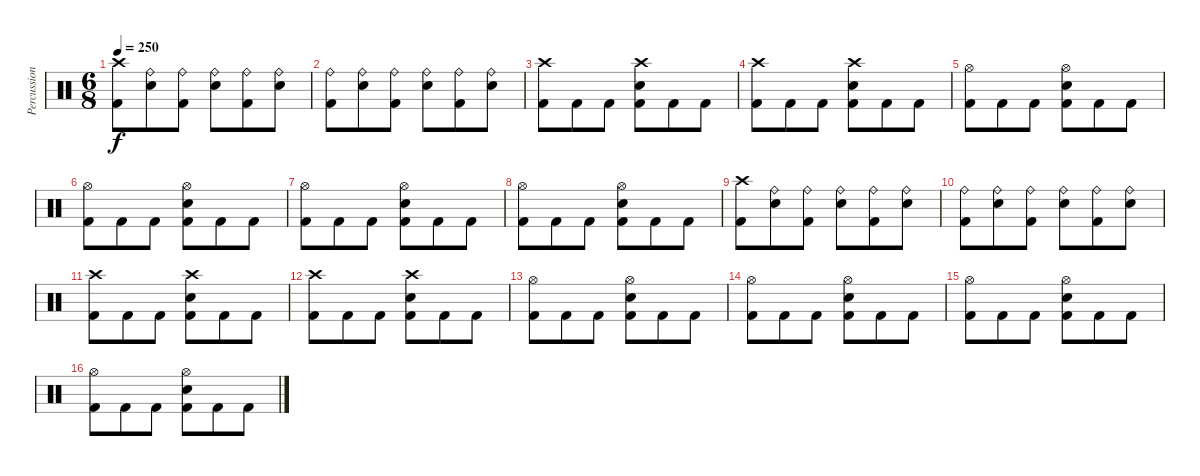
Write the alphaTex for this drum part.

\track ("Percussion" "Percussion") {instrument percussion}
\staff {score}
\articulation defaults
\ts (6 8)
\tempo 250
\clef neutral
\ks c
("Crash high (hit)" "Kick (hit) 2").8{dy f} ("Ride (bell)" "Electric Snare (hit)").8 ("Ride (bell)" "Kick (hit) 2").8 ("Ride (bell)" "Electric Snare (hit)").8 ("Ride (bell)" "Kick (hit) 2").8 ("Ride (bell)" "Electric Snare (hit)").8 |
("Ride (bell)" "Kick (hit) 2").8 ("Ride (bell)" "Electric Snare (hit)").8 ("Ride (bell)" "Kick (hit) 2").8 ("Ride (bell)" "Electric Snare (hit)").8 ("Ride (bell)" "Kick (hit) 2").8 ("Ride (bell)" "Electric Snare (hit)").8 |
("Crash high (hit)" "Kick (hit) 2").8 "Kick (hit) 2".8 "Kick (hit) 2".8 ("Crash high (hit)" "Electric Snare (hit)" "Kick (hit) 2").8 "Kick (hit) 2".8 "Kick (hit) 2".8 |
("Crash high (hit)" "Kick (hit) 2").8 "Kick (hit) 2".8 "Kick (hit) 2".8 ("Crash high (hit)" "Electric Snare (hit)" "Kick (hit) 2").8 "Kick (hit) 2".8 "Kick (hit) 2".8 |
("Hi-Hat (open)" "Kick (hit) 2").8 "Kick (hit) 2".8 "Kick (hit) 2".8 ("Hi-Hat (open)" "Electric Snare (hit)" "Kick (hit) 2").8 "Kick (hit) 2".8 "Kick (hit) 2".8 |
("Hi-Hat (open)" "Kick (hit) 2").8 "Kick (hit) 2".8 "Kick (hit) 2".8 ("Hi-Hat (open)" "Electric Snare (hit)" "Kick (hit) 2").8 "Kick (hit) 2".8 "Kick (hit) 2".8 |
("Hi-Hat (open)" "Kick (hit) 2").8 "Kick (hit) 2".8 "Kick (hit) 2".8 ("Hi-Hat (open)" "Electric Snare (hit)" "Kick (hit) 2").8 "Kick (hit) 2".8 "Kick (hit) 2".8 |
("Hi-Hat (open)" "Kick (hit) 2").8 "Kick (hit) 2".8 "Kick (hit) 2".8 ("Hi-Hat (open)" "Electric Snare (hit)" "Kick (hit) 2").8 "Kick (hit) 2".8 "Kick (hit) 2".8 |
("Crash high (hit)" "Kick (hit) 2").8 ("Ride (bell)" "Electric Snare (hit)").8 ("Ride (bell)" "Kick (hit) 2").8 ("Ride (bell)" "Electric Snare (hit)").8 ("Ride (bell)" "Kick (hit) 2").8 ("Ride (bell)" "Electric Snare (hit)").8 |
("Ride (bell)" "Kick (hit) 2").8 ("Ride (bell)" "Electric Snare (hit)").8 ("Ride (bell)" "Kick (hit) 2").8 ("Ride (bell)" "Electric Snare (hit)").8 ("Ride (bell)" "Kick (hit) 2").8 ("Ride (bell)" "Electric Snare (hit)").8 |
("Crash high (hit)" "Kick (hit) 2").8 "Kick (hit) 2".8 "Kick (hit) 2".8 ("Crash high (hit)" "Electric Snare (hit)" "Kick (hit) 2").8 "Kick (hit) 2".8 "Kick (hit) 2".8 |
("Crash high (hit)" "Kick (hit) 2").8 "Kick (hit) 2".8 "Kick (hit) 2".8 ("Crash high (hit)" "Electric Snare (hit)" "Kick (hit) 2").8 "Kick (hit) 2".8 "Kick (hit) 2".8 |
("Hi-Hat (open)" "Kick (hit) 2").8 "Kick (hit) 2".8 "Kick (hit) 2".8 ("Hi-Hat (open)" "Electric Snare (hit)" "Kick (hit) 2").8 "Kick (hit) 2".8 "Kick (hit) 2".8 |
("Hi-Hat (open)" "Kick (hit) 2").8 "Kick (hit) 2".8 "Kick (hit) 2".8 ("Hi-Hat (open)" "Electric Snare (hit)" "Kick (hit) 2").8 "Kick (hit) 2".8 "Kick (hit) 2".8 |
("Hi-Hat (open)" "Kick (hit) 2").8 "Kick (hit) 2".8 "Kick (hit) 2".8 ("Hi-Hat (open)" "Electric Snare (hit)" "Kick (hit) 2").8 "Kick (hit) 2".8 "Kick (hit) 2".8 |
("Hi-Hat (open)" "Kick (hit) 2").8 "Kick (hit) 2".8 "Kick (hit) 2".8 ("Hi-Hat (open)" "Electric Snare (hit)" "Kick (hit) 2").8 "Kick (hit) 2".8 "Kick (hit) 2".8
